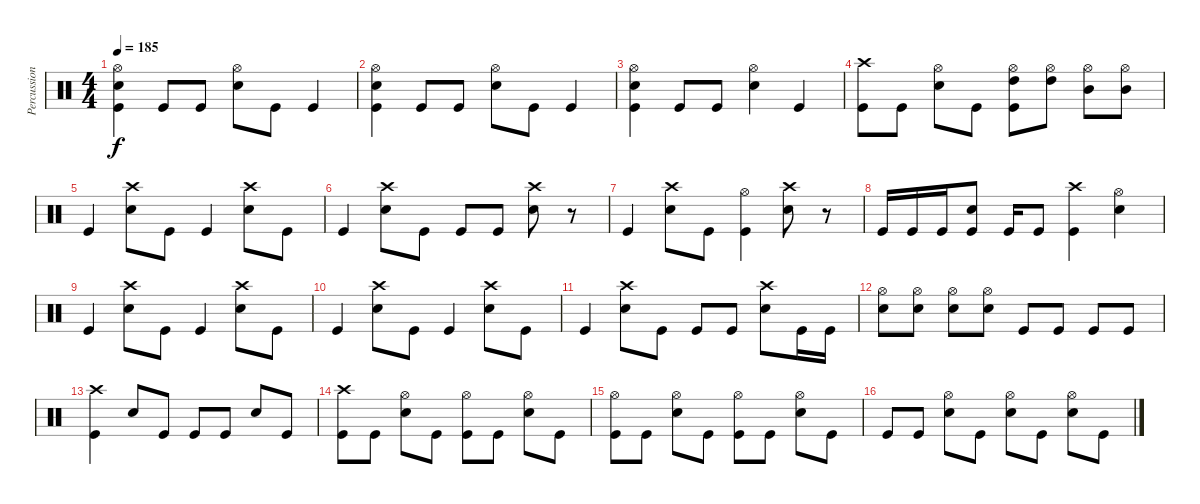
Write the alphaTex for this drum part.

\track ("Percussions" "Percussion") {instrument percussion}
\staff {score}
\articulation defaults
\ts (4 4)
\tempo 185
\clef neutral
\ks c
("Hi-Hat (open)" "Snare (hit) 2" "Kick (hit)").4{dy f} "Kick (hit)".8 "Kick (hit)".8 ("Hi-Hat (open)" "Snare (hit) 2").8 "Kick (hit)".8 "Kick (hit)".4 |
("Hi-Hat (open)" "Snare (hit) 2" "Kick (hit)").4 "Kick (hit)".8 "Kick (hit)".8 ("Hi-Hat (open)" "Snare (hit) 2").8 "Kick (hit)".8 "Kick (hit)".4 |
("Hi-Hat (open)" "Snare (hit) 2" "Kick (hit)").4 "Kick (hit)".8 "Kick (hit)".8 ("Hi-Hat (open)" "Snare (hit) 2").4 "Kick (hit)".4 |
("Crash high (hit)" "Kick (hit)").8 "Kick (hit)".8 ("Hi-Hat (open)" "Snare (hit) 2").8 "Kick (hit)".8 ("Hi-Hat (open)" "High Tom (hit)" "Kick (hit)").8 ("Hi-Hat (open)" "High Tom (hit)").8 ("Hi-Hat (open)" "Mid Tom (hit)").8 ("Hi-Hat (open)" "Mid Tom (hit)").8 |
"Kick (hit)".4 ("Crash high (hit)" "Snare (hit) 2").8 "Kick (hit)".8 "Kick (hit)".4 ("Crash high (hit)" "Snare (hit) 2").8 "Kick (hit)".8 |
"Kick (hit)".4 ("Crash high (hit)" "Snare (hit) 2").8 "Kick (hit)".8 "Kick (hit)".8 "Kick (hit)".8 ("Crash high (hit)" "Snare (hit) 2").8 r.8 |
"Kick (hit)".4 ("Crash high (hit)" "Snare (hit) 2").8 "Kick (hit)".8 ("Hi-Hat (open)" "Kick (hit)").4 ("Crash high (hit)" "Snare (hit) 2").8 r.8 |
"Kick (hit)".16 "Kick (hit)".16 "Kick (hit)".16 ("Snare (hit) 2" "Kick (hit)").8 "Kick (hit)".16 "Kick (hit)".8 ("Crash high (hit)" "Kick (hit)").4 ("Hi-Hat (open)" "Snare (hit) 2").4 |
"Kick (hit)".4 ("Crash high (hit)" "Snare (hit) 2").8 "Kick (hit)".8 "Kick (hit)".4 ("Crash high (hit)" "Snare (hit) 2").8 "Kick (hit)".8 |
"Kick (hit)".4 ("Crash high (hit)" "Snare (hit) 2").8 "Kick (hit)".8 "Kick (hit)".4 ("Crash high (hit)" "Snare (hit) 2").8 "Kick (hit)".8 |
"Kick (hit)".4 ("Crash high (hit)" "Snare (hit) 2").8 "Kick (hit)".8 "Kick (hit)".8 "Kick (hit)".8 ("Crash high (hit)" "Snare (hit) 2").8 "Kick (hit)".16 "Kick (hit)".16 |
("Hi-Hat (open)" "Snare (hit) 2").8 ("Hi-Hat (open)" "Snare (hit) 2").8 ("Hi-Hat (open)" "Snare (hit) 2").8 ("Hi-Hat (open)" "Snare (hit) 2").8 "Kick (hit)".8 "Kick (hit)".8 "Kick (hit)".8 "Kick (hit)".8 |
("Crash high (hit)" "Kick (hit)").4 "Snare (hit) 2".8 "Kick (hit)".8 "Kick (hit)".8 "Kick (hit)".8 "Snare (hit) 2".8 "Kick (hit)".8 |
("Crash high (hit)" "Kick (hit)").8 "Kick (hit)".8 ("Hi-Hat (open)" "Snare (hit) 2").8 "Kick (hit)".8 ("Hi-Hat (open)" "Kick (hit)").8 "Kick (hit)".8 ("Hi-Hat (open)" "Snare (hit) 2").8 "Kick (hit)".8 |
("Hi-Hat (open)" "Kick (hit)").8 "Kick (hit)".8 ("Hi-Hat (open)" "Snare (hit) 2").8 "Kick (hit)".8 ("Hi-Hat (open)" "Kick (hit)").8 "Kick (hit)".8 ("Hi-Hat (open)" "Snare (hit) 2").8 "Kick (hit)".8 |
"Kick (hit)".8 "Kick (hit)".8 ("Hi-Hat (open)" "Snare (hit) 2").8 "Kick (hit)".8 ("Hi-Hat (open)" "Snare (hit) 2").8 "Kick (hit)".8 ("Hi-Hat (open)" "Snare (hit) 2").8 "Kick (hit)".8
